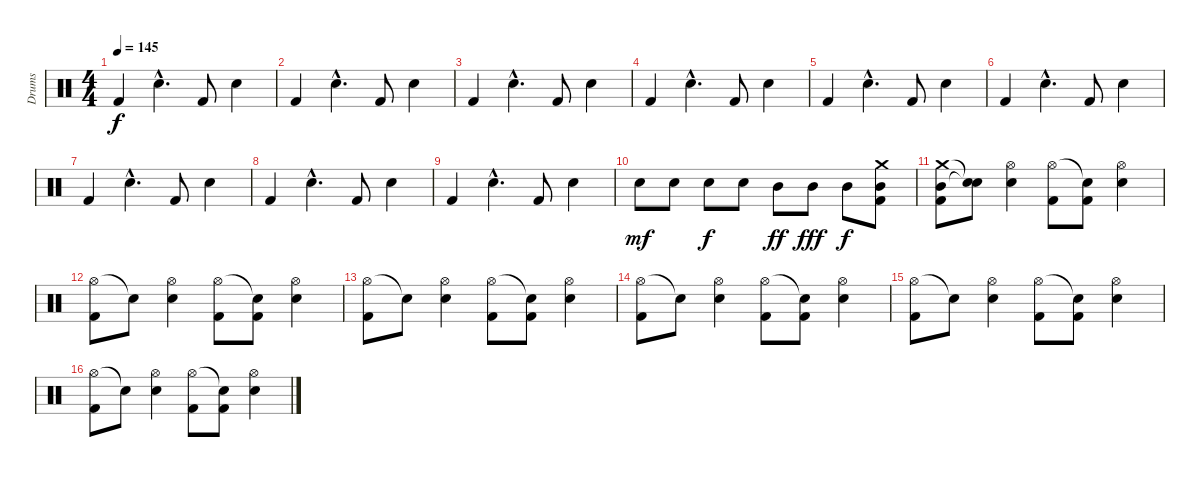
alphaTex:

\track ("Drums" "Drums") {instrument percussion}
\staff {score}
\articulation defaults
\ts (4 4)
\tempo 145
\clef neutral
\ks c "Kick (hit) 2".4{dy f} "Electric Snare (hit)"{hac}.4{d} "Kick (hit) 2".8 "Electric Snare (hit)".4
|
"Kick (hit) 2".4 "Electric Snare (hit)"{hac}.4{d} "Kick (hit) 2".8 "Electric Snare (hit)".4 |
"Kick (hit) 2".4 "Electric Snare (hit)"{hac}.4{d} "Kick (hit) 2".8 "Electric Snare (hit)".4 |
"Kick (hit) 2".4 "Electric Snare (hit)"{hac}.4{d} "Kick (hit) 2".8 "Electric Snare (hit)".4 |
"Kick (hit) 2".4 "Electric Snare (hit)"{hac}.4{d} "Kick (hit) 2".8 "Electric Snare (hit)".4 |
"Kick (hit) 2".4 "Electric Snare (hit)"{hac}.4{d} "Kick (hit) 2".8 "Electric Snare (hit)".4 |
"Kick (hit) 2".4 "Electric Snare (hit)"{hac}.4{d} "Kick (hit) 2".8 "Electric Snare (hit)".4 |
"Kick (hit) 2".4 "Electric Snare (hit)"{hac}.4{d} "Kick (hit) 2".8 "Electric Snare (hit)".4 |
"Kick (hit) 2".4 "Electric Snare (hit)"{hac}.4{d} "Kick (hit) 2".8 "Electric Snare (hit)".4 |
"Electric Snare (hit)".8{dy mf} "Electric Snare (hit)".8 "Electric Snare (hit)".8{dy f} "Electric Snare (hit)".8 "Mid Tom (hit)".8{dy ff} "Mid Tom (hit)".8{dy fff} "Mid Tom (hit)".8{dy f} ("Mid Tom (hit)" "Crash medium (hit)" "Kick (hit) 2").8 |
("Mid Tom (hit)" "Crash medium (hit)" "Kick (hit) 2").8 ("Snare (hit)"{t} "Snare (hit)"{t}).8 ("Hi-Hat (open)" "Electric Snare (hit)").4 ("Hi-Hat (open)" "Kick (hit) 2").8 ("Snare (hit)"{t} "Kick (hit) 2").8 ("Hi-Hat (open)" "Electric Snare (hit)").4 |
("Hi-Hat (open)" "Kick (hit) 2").8 "Snare (hit)"{t}.8 ("Hi-Hat (open)" "Electric Snare (hit)").4 ("Hi-Hat (open)" "Kick (hit) 2").8 ("Snare (hit)"{t} "Kick (hit) 2").8 ("Hi-Hat (open)" "Electric Snare (hit)").4 |
("Hi-Hat (open)" "Kick (hit) 2").8 "Snare (hit)"{t}.8 ("Hi-Hat (open)" "Electric Snare (hit)").4 ("Hi-Hat (open)" "Kick (hit) 2").8 ("Snare (hit)"{t} "Kick (hit) 2").8 ("Hi-Hat (open)" "Electric Snare (hit)").4 |
("Hi-Hat (open)" "Kick (hit) 2").8 "Snare (hit)"{t}.8 ("Hi-Hat (open)" "Electric Snare (hit)").4 ("Hi-Hat (open)" "Kick (hit) 2").8 ("Snare (hit)"{t} "Kick (hit) 2").8 ("Hi-Hat (open)" "Electric Snare (hit)").4 |
("Hi-Hat (open)" "Kick (hit) 2").8 "Snare (hit)"{t}.8 ("Hi-Hat (open)" "Electric Snare (hit)").4 ("Hi-Hat (open)" "Kick (hit) 2").8 ("Snare (hit)"{t} "Kick (hit) 2").8 ("Hi-Hat (open)" "Electric Snare (hit)").4 |
("Hi-Hat (open)" "Kick (hit) 2").8 "Snare (hit)"{t}.8 ("Hi-Hat (open)" "Electric Snare (hit)").4 ("Hi-Hat (open)" "Kick (hit) 2").8 ("Snare (hit)"{t} "Kick (hit) 2").8 ("Hi-Hat (open)" "Electric Snare (hit)").4
